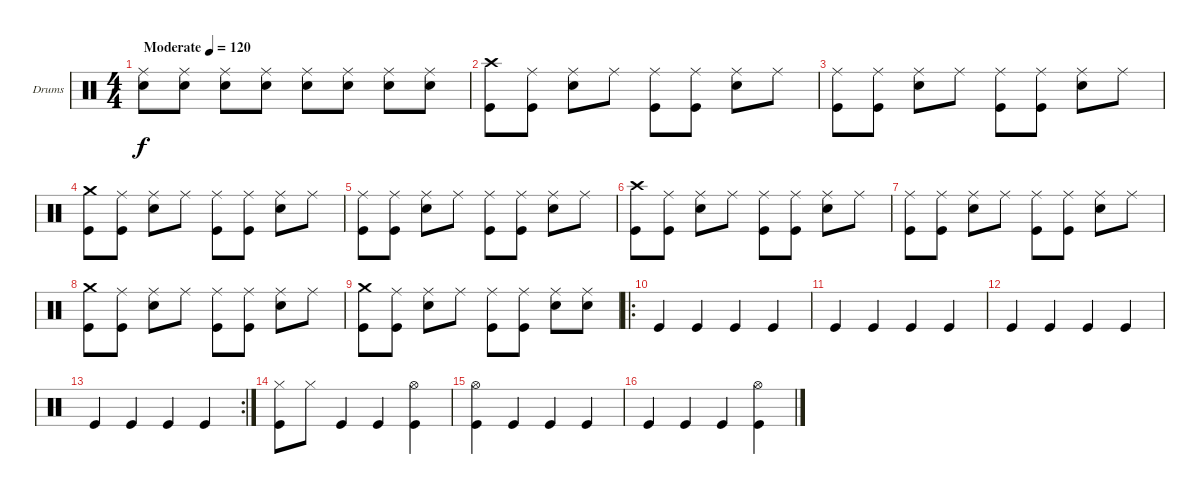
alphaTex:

\bracketExtendMode groupsimilarinstruments
\firstSystemTrackNameOrientation horizontal
\otherSystemsTrackNameOrientation horizontal
\track ("Drumkit" "Drums") {instrument percussion}
\staff {score}
\articulation defaults
\ts (4 4)
\beaming (8 2 2 2 2)
\tempo (120 "Moderate")
\clef neutral
\ks c
("Ride (middle)" "Snare (hit) 2").8{dy f} ("Ride (middle)" "Snare (hit) 2").8 ("Ride (middle)" "Snare (hit) 2").8 ("Ride (middle)" "Snare (hit) 2").8 ("Ride (middle)" "Snare (hit) 2").8 ("Ride (middle)" "Snare (hit) 2").8 ("Ride (middle)" "Snare (hit) 2").8 ("Ride (middle)" "Snare (hit) 2").8 |
("Kick (hit)" "Crash high (hit)").8 ("Ride (middle)" "Kick (hit)").8 ("Ride (middle)" "Snare (hit) 2").8 "Ride (middle)".8 ("Ride (middle)" "Kick (hit)").8 ("Ride (middle)" "Kick (hit)").8 ("Ride (middle)" "Snare (hit) 2").8 "Ride (middle)".8 |
("Ride (middle)" "Kick (hit)").8 ("Ride (middle)" "Kick (hit)").8 ("Ride (middle)" "Snare (hit) 2").8 "Ride (middle)".8 ("Ride (middle)" "Kick (hit)").8 ("Ride (middle)" "Kick (hit)").8 ("Ride (middle)" "Snare (hit) 2").8 "Ride (middle)".8 |
("Kick (hit)" "Crash medium (hit)").8 ("Ride (middle)" "Kick (hit)").8 ("Ride (middle)" "Snare (hit) 2").8 "Ride (middle)".8 ("Ride (middle)" "Kick (hit)").8 ("Ride (middle)" "Kick (hit)").8 ("Ride (middle)" "Snare (hit) 2").8 "Ride (middle)".8 |
("Ride (middle)" "Kick (hit)").8 ("Ride (middle)" "Kick (hit)").8 ("Ride (middle)" "Snare (hit) 2").8 "Ride (middle)".8 ("Ride (middle)" "Kick (hit)").8 ("Ride (middle)" "Kick (hit)").8 ("Ride (middle)" "Snare (hit) 2").8 "Ride (middle)".8 |
("Kick (hit)" "Crash high (hit)").8 ("Ride (middle)" "Kick (hit)").8 ("Ride (middle)" "Snare (hit) 2").8 "Ride (middle)".8 ("Ride (middle)" "Kick (hit)").8 ("Ride (middle)" "Kick (hit)").8 ("Ride (middle)" "Snare (hit) 2").8 "Ride (middle)".8 |
("Ride (middle)" "Kick (hit)").8 ("Ride (middle)" "Kick (hit)").8 ("Ride (middle)" "Snare (hit) 2").8 "Ride (middle)".8 ("Ride (middle)" "Kick (hit)").8 ("Ride (middle)" "Kick (hit)").8 ("Ride (middle)" "Snare (hit) 2").8 "Ride (middle)".8 |
("Kick (hit)" "Crash medium (hit)").8 ("Ride (middle)" "Kick (hit)").8 ("Ride (middle)" "Snare (hit) 2").8 "Ride (middle)".8 ("Ride (middle)" "Kick (hit)").8 ("Ride (middle)" "Kick (hit)").8 ("Ride (middle)" "Snare (hit) 2").8 "Ride (middle)".8 |
("Kick (hit)" "Crash medium (hit)").8 ("Ride (middle)" "Kick (hit)").8 ("Ride (middle)" "Snare (hit) 2").8 "Ride (middle)".8 ("Ride (middle)" "Kick (hit)").8 ("Ride (middle)" "Kick (hit)").8 ("Ride (middle)" "Snare (hit) 2").8 ("Ride (middle)" "Snare (hit) 2").8 |
\ro "Kick (hit)".4 "Kick (hit)".4 "Kick (hit)".4 "Kick (hit)".4
|
"Kick (hit)".4 "Kick (hit)".4 "Kick (hit)".4 "Kick (hit)".4 |
"Kick (hit)".4 "Kick (hit)".4 "Kick (hit)".4 "Kick (hit)".4 |
\rc 2 "Kick (hit)".4 "Kick (hit)".4 "Kick (hit)".4 "Kick (hit)".4
|
("Hi-Hat (closed)" "Kick (hit)").8 "Hi-Hat (closed)".8 "Kick (hit)".4 "Kick (hit)".4 ("Kick (hit)" "Hi-Hat (open)").4 |
("Kick (hit)" "Hi-Hat (open)").4 "Kick (hit)".4 "Kick (hit)".4 "Kick (hit)".4 |
"Kick (hit)".4 "Kick (hit)".4 "Kick (hit)".4 ("Kick (hit)" "Hi-Hat (open)").4
